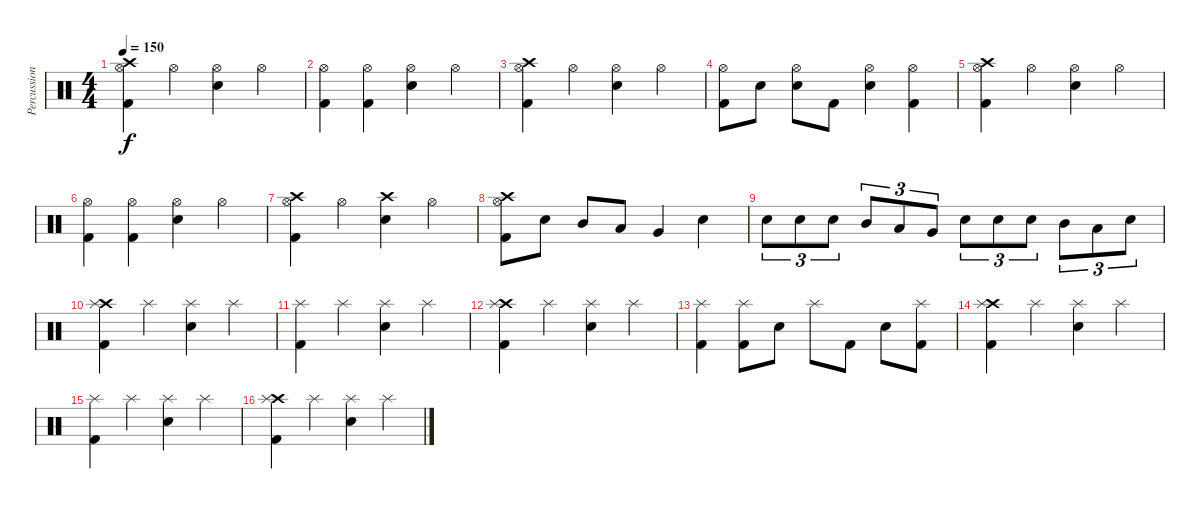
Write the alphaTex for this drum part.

\track ("Percussion" "Percussion") {instrument percussion}
\staff {score}
\articulation defaults
\ts (4 4)
\tempo 150
\clef neutral
\ks c
("Crash high (hit)" "Hi-Hat (open)" "Kick (hit) 2").4{dy f} "Hi-Hat (open)".4 ("Hi-Hat (open)" "Snare (hit) 2").4 "Hi-Hat (open)".4 |
("Hi-Hat (open)" "Kick (hit) 2").4 ("Hi-Hat (open)" "Kick (hit) 2").4 ("Hi-Hat (open)" "Snare (hit) 2").4 "Hi-Hat (open)".4 |
("Crash high (hit)" "Hi-Hat (open)" "Kick (hit) 2").4 "Hi-Hat (open)".4 ("Hi-Hat (open)" "Snare (hit) 2").4 "Hi-Hat (open)".4 |
("Hi-Hat (open)" "Kick (hit) 2").8 "Snare (hit) 2".8 ("Hi-Hat (open)" "Snare (hit) 2").8 "Kick (hit) 2".8 ("Hi-Hat (open)" "Snare (hit) 2").4 ("Hi-Hat (open)" "Kick (hit) 2").4 |
("Crash high (hit)" "Hi-Hat (open)" "Kick (hit) 2").4 "Hi-Hat (open)".4 ("Hi-Hat (open)" "Snare (hit) 2").4 "Hi-Hat (open)".4 |
("Hi-Hat (open)" "Kick (hit) 2").4 ("Hi-Hat (open)" "Kick (hit) 2").4 ("Hi-Hat (open)" "Snare (hit) 2").4 "Hi-Hat (open)".4 |
("Crash high (hit)" "Hi-Hat (open)" "Kick (hit) 2").4 "Hi-Hat (open)".4 ("Crash high (hit)" "Snare (hit) 2").4 "Hi-Hat (open)".4 |
("Hi-Hat (open)" "Crash high (hit)" "Kick (hit) 2").8 "Snare (hit) 2".8 "Mid Tom (hit)".8 "Low Tom (hit)".8 "Very Low Tom (hit)".4 "Snare (hit) 2".4 |
"Snare (hit) 2".8{tu (3 2)} "Snare (hit) 2".8{tu (3 2)} "Snare (hit) 2".8{tu (3 2)} "Mid Tom (hit)".8{tu (3 2)} "Low Tom (hit)".8{tu (3 2)} "Very Low Tom (hit)".8{tu (3 2)} "Snare (hit) 2".8{tu (3 2)} "Snare (hit) 2".8{tu (3 2)} "Snare (hit) 2".8{tu (3 2)} "Mid Tom (hit)".8{tu (3 2)} "Low Tom (hit)".8{tu (3 2)} "Snare (hit) 2".8{tu (3 2)} |
("Crash high (hit)" "Splash (hit)" "Kick (hit) 2").4 "Splash (hit)".4 ("Splash (hit)" "Snare (hit) 2").4 "Splash (hit)".4 |
("Splash (hit)" "Kick (hit) 2").4 "Splash (hit)".4 ("Splash (hit)" "Snare (hit) 2").4 "Splash (hit)".4 |
("Crash high (hit)" "Splash (hit)" "Kick (hit) 2").4 "Splash (hit)".4 ("Splash (hit)" "Snare (hit) 2").4 "Splash (hit)".4 |
("Splash (hit)" "Kick (hit) 2").4 ("Splash (hit)" "Kick (hit) 2").8 "Snare (hit) 2".8 "Splash (hit)".8 "Kick (hit) 2".8 "Snare (hit) 2".8 ("Splash (hit)" "Kick (hit) 2").8 |
("Crash high (hit)" "Splash (hit)" "Kick (hit) 2").4 "Splash (hit)".4 ("Splash (hit)" "Snare (hit) 2").4 "Splash (hit)".4 |
("Splash (hit)" "Kick (hit) 2").4 "Splash (hit)".4 ("Splash (hit)" "Snare (hit) 2").4 "Splash (hit)".4 |
("Crash high (hit)" "Splash (hit)" "Kick (hit) 2").4 "Splash (hit)".4 ("Splash (hit)" "Snare (hit) 2").4 "Splash (hit)".4
